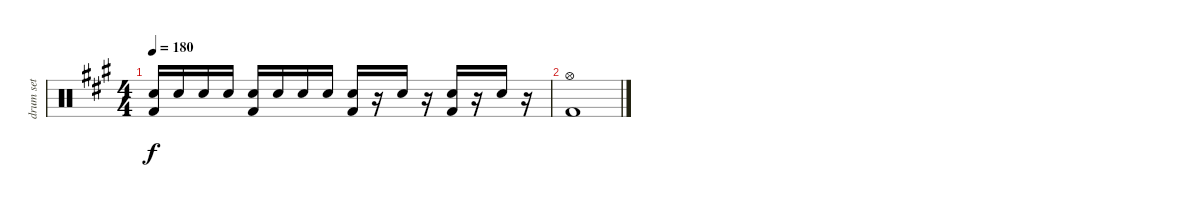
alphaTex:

\track ("drum set" "drum set") {instrument percussion}
\staff {score}
\articulation defaults
\ts (4 4)
\tempo 180
\clef neutral
\ks a
("Snare (hit) 2" "Kick (hit) 2").16{dy f} "Snare (hit) 2".16 "Snare (hit) 2".16 "Snare (hit) 2".16 ("Snare (hit) 2" "Kick (hit) 2").16 "Snare (hit) 2".16 "Snare (hit) 2".16 "Snare (hit) 2".16 ("Snare (hit) 2" "Kick (hit) 2").16 r.16 "Snare (hit) 2".16 r.16 ("Snare (hit) 2" "Kick (hit) 2").16 r.16 "Snare (hit) 2".16 r.16 |
("Hi-Hat (open)" "Kick (hit) 2").1
